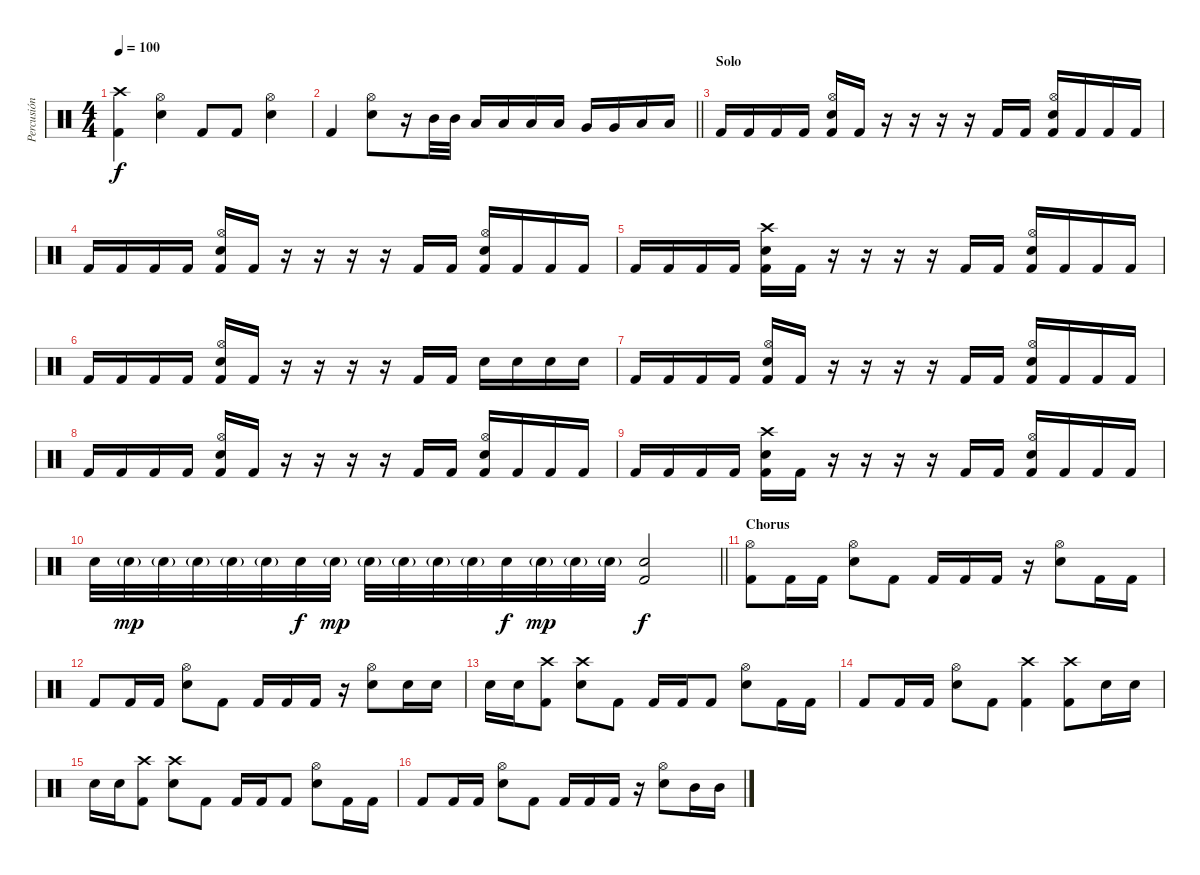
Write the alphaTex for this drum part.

\track ("Percusión" "Percusión") {instrument percussion}
\staff {score}
\articulation defaults
\ts (4 4)
\tempo 100
\clef neutral
\ks c
("Crash high (hit)" "Kick (hit) 2").4{dy f} ("Hi-Hat (open)" "Snare (hit) 2").4 "Kick (hit) 2".8 "Kick (hit) 2".8 ("Hi-Hat (open)" "Snare (hit) 2").4 |
\barLineRight lightlight "Kick (hit) 2".4
("Hi-Hat (open)" "Snare (hit) 2").8 r.16 "Mid Tom (hit)".32 "Mid Tom (hit)".32 "Low Tom (hit)".16 "Low Tom (hit)".16 "Low Tom (hit)".16 "Low Tom (hit)".16 "Very Low Tom (hit)".16 "Very Low Tom (hit)".16 "Low Floor Tom (hit)".16 "Low Floor Tom (hit)".16 |
\section ("" "Solo")
"Kick (hit) 2".16 "Kick (hit) 2".16 "Kick (hit) 2".16 "Kick (hit) 2".16 ("Hi-Hat (open)" "Snare (hit) 2" "Kick (hit) 2").16 "Kick (hit) 2".16 r.16 r.16 r.16 r.16 "Kick (hit) 2".16 "Kick (hit) 2".16 ("Hi-Hat (open)" "Snare (hit) 2" "Kick (hit) 2").16 "Kick (hit) 2".16 "Kick (hit) 2".16 "Kick (hit) 2".16 |
"Kick (hit) 2".16 "Kick (hit) 2".16 "Kick (hit) 2".16 "Kick (hit) 2".16 ("Hi-Hat (open)" "Snare (hit) 2" "Kick (hit) 2").16 "Kick (hit) 2".16 r.16 r.16 r.16 r.16 "Kick (hit) 2".16 "Kick (hit) 2".16 ("Hi-Hat (open)" "Snare (hit) 2" "Kick (hit) 2").16 "Kick (hit) 2".16 "Kick (hit) 2".16 "Kick (hit) 2".16 |
"Kick (hit) 2".16 "Kick (hit) 2".16 "Kick (hit) 2".16 "Kick (hit) 2".16 ("Crash high (hit)" "Snare (hit) 2" "Kick (hit) 2").16 "Kick (hit) 2".16 r.16 r.16 r.16 r.16 "Kick (hit) 2".16 "Kick (hit) 2".16 ("Hi-Hat (open)" "Snare (hit) 2" "Kick (hit) 2").16 "Kick (hit) 2".16 "Kick (hit) 2".16 "Kick (hit) 2".16 |
"Kick (hit) 2".16 "Kick (hit) 2".16 "Kick (hit) 2".16 "Kick (hit) 2".16 ("Hi-Hat (open)" "Snare (hit) 2" "Kick (hit) 2").16 "Kick (hit) 2".16 r.16 r.16 r.16 r.16 "Kick (hit) 2".16 "Kick (hit) 2".16 "Snare (hit) 2".16 "Snare (hit) 2".16 "Snare (hit) 2".16 "Snare (hit) 2".16 |
"Kick (hit) 2".16 "Kick (hit) 2".16 "Kick (hit) 2".16 "Kick (hit) 2".16 ("Hi-Hat (open)" "Snare (hit) 2" "Kick (hit) 2").16 "Kick (hit) 2".16 r.16 r.16 r.16 r.16 "Kick (hit) 2".16 "Kick (hit) 2".16 ("Hi-Hat (open)" "Snare (hit) 2" "Kick (hit) 2").16 "Kick (hit) 2".16 "Kick (hit) 2".16 "Kick (hit) 2".16 |
"Kick (hit) 2".16 "Kick (hit) 2".16 "Kick (hit) 2".16 "Kick (hit) 2".16 ("Hi-Hat (open)" "Snare (hit) 2" "Kick (hit) 2").16 "Kick (hit) 2".16 r.16 r.16 r.16 r.16 "Kick (hit) 2".16 "Kick (hit) 2".16 ("Hi-Hat (open)" "Snare (hit) 2" "Kick (hit) 2").16 "Kick (hit) 2".16 "Kick (hit) 2".16 "Kick (hit) 2".16 |
"Kick (hit) 2".16 "Kick (hit) 2".16 "Kick (hit) 2".16 "Kick (hit) 2".16 ("Crash high (hit)" "Snare (hit) 2" "Kick (hit) 2").16 "Kick (hit) 2".16 r.16 r.16 r.16 r.16 "Kick (hit) 2".16 "Kick (hit) 2".16 ("Hi-Hat (open)" "Snare (hit) 2" "Kick (hit) 2").16 "Kick (hit) 2".16 "Kick (hit) 2".16 "Kick (hit) 2".16 |
\barLineRight lightlight "Snare (hit) 2".32 "Snare (hit) 2"{g}.32{dy mp} "Snare (hit) 2"{g}.32 "Snare (hit) 2"{g}.32 "Snare (hit) 2"{g}.32 "Snare (hit) 2"{g}.32 "Snare (hit) 2".32{dy f} "Snare (hit) 2"{g}.32{dy mp} "Snare (hit) 2"{g}.32 "Snare (hit) 2"{g}.32 "Snare (hit) 2"{g}.32 "Snare (hit) 2"{g}.32 "Snare (hit) 2".32{dy f} "Snare (hit) 2"{g}.32{dy mp} "Snare (hit) 2"{g}.32 "Snare (hit) 2"{g}.32
("Snare (hit) 2" "Kick (hit) 2").2{dy f} |
\section ("" "Chorus")
("Hi-Hat (open)" "Kick (hit) 2").8 "Kick (hit) 2".16 "Kick (hit) 2".16 ("Hi-Hat (open)" "Snare (hit) 2").8 "Kick (hit) 2".8 "Kick (hit) 2".16 "Kick (hit) 2".16 "Kick (hit) 2".16 r.16 ("Hi-Hat (open)" "Snare (hit) 2").8 "Kick (hit) 2".16 "Kick (hit) 2".16 |
"Kick (hit) 2".8 "Kick (hit) 2".16 "Kick (hit) 2".16 ("Hi-Hat (open)" "Snare (hit) 2").8 "Kick (hit) 2".8 "Kick (hit) 2".16 "Kick (hit) 2".16 "Kick (hit) 2".16 r.16 ("Hi-Hat (open)" "Snare (hit) 2").8 "Snare (hit) 2".16 "Snare (hit) 2".16 |
"Snare (hit) 2".16 "Snare (hit) 2".16 ("Crash high (hit)" "Kick (hit) 2").8 ("Crash high (hit)" "Snare (hit) 2").8 "Kick (hit) 2".8 "Kick (hit) 2".16 "Kick (hit) 2".16 "Kick (hit) 2".8 ("Hi-Hat (open)" "Snare (hit) 2").8 "Kick (hit) 2".16 "Kick (hit) 2".16 |
"Kick (hit) 2".8 "Kick (hit) 2".16 "Kick (hit) 2".16 ("Hi-Hat (open)" "Snare (hit) 2").8 "Kick (hit) 2".8 ("Crash high (hit)" "Kick (hit) 2").4 ("Crash high (hit)" "Kick (hit) 2").8 "Snare (hit) 2".16 "Snare (hit) 2".16 |
"Snare (hit) 2".16 "Snare (hit) 2".16 ("Crash high (hit)" "Kick (hit) 2").8 ("Crash high (hit)" "Snare (hit) 2").8 "Kick (hit) 2".8 "Kick (hit) 2".16 "Kick (hit) 2".16 "Kick (hit) 2".8 ("Hi-Hat (open)" "Snare (hit) 2").8 "Kick (hit) 2".16 "Kick (hit) 2".16 |
"Kick (hit) 2".8 "Kick (hit) 2".16 "Kick (hit) 2".16 ("Hi-Hat (open)" "Snare (hit) 2").8 "Kick (hit) 2".8 "Kick (hit) 2".16 "Kick (hit) 2".16 "Kick (hit) 2".16 r.16 ("Hi-Hat (open)" "Snare (hit) 2").8 "Mid Tom (hit)".16 "Mid Tom (hit)".16
